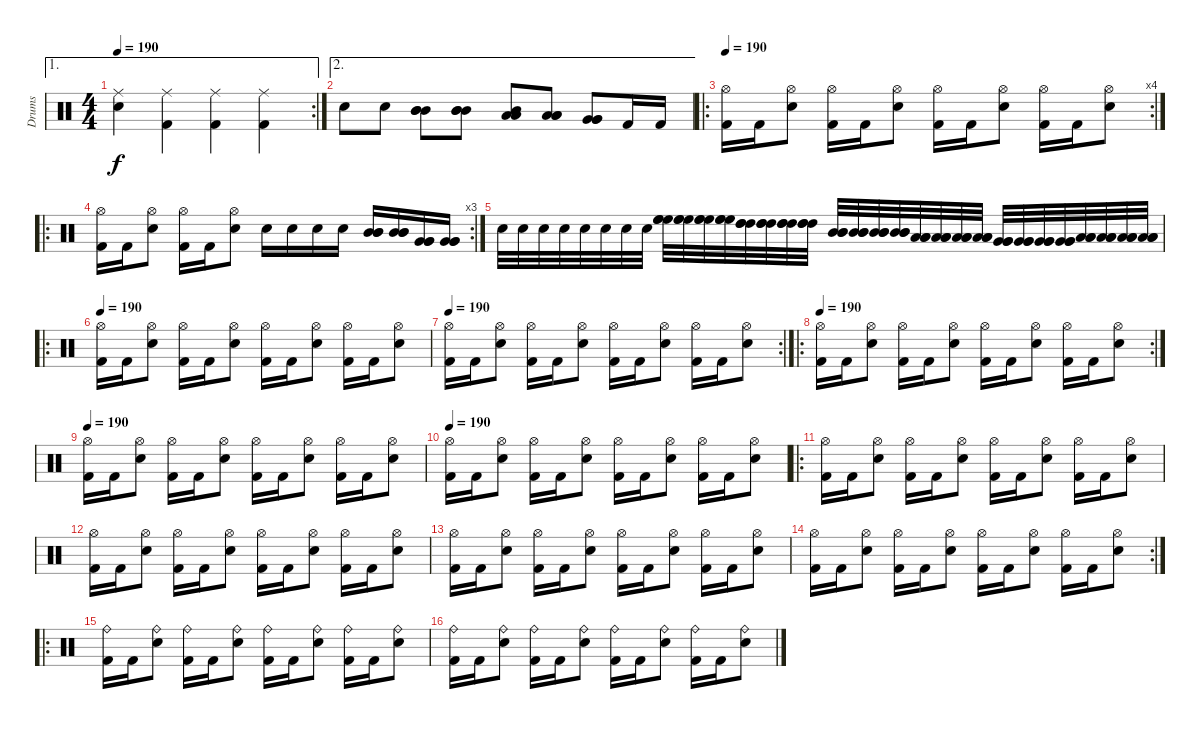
\track ("Drums" "Drums") {instrument percussion}
\staff {score}
\articulation defaults
\ae 1
\rc 2
\ts (4 4)
\tempo 190
\clef neutral
\ks c
("Ride (middle)" "Electric Snare (hit)").4{dy f} ("Ride (middle)" "Kick (hit) 2").4 ("Ride (middle)" "Kick (hit) 2").4 ("Ride (middle)" "Kick (hit) 2").4 |
\ae 2 "Electric Snare (hit)".8 "Electric Snare (hit)".8
("Mid Tom (hit)" "Mid Tom (hit)" "Mid Tom (hit)").8 ("Mid Tom (hit)" "Mid Tom (hit)" "Mid Tom (hit)").8 ("Low Tom (hit)" "Low Tom (hit)" "Mid Tom (hit)").8 ("Low Tom (hit)" "Low Tom (hit)" "Low Tom (hit)").8 ("Very Low Tom (hit)" "Very Low Tom (hit)" "Very Low Tom (hit)").8 "Kick (hit) 2".16 "Kick (hit) 2".16 |
\ro
\rc 4
\tempo 190
("Hi-Hat (open)" "Kick (hit) 2").16 "Kick (hit) 2".16 ("Hi-Hat (open)" "Electric Snare (hit)").8 ("Hi-Hat (open)" "Kick (hit) 2").16 "Kick (hit) 2".16 ("Hi-Hat (open)" "Electric Snare (hit)").8 ("Hi-Hat (open)" "Kick (hit) 2").16 "Kick (hit) 2".16 ("Hi-Hat (open)" "Electric Snare (hit)").8 ("Hi-Hat (open)" "Kick (hit) 2").16 "Kick (hit) 2".16 ("Hi-Hat (open)" "Electric Snare (hit)").8 |
\ro
\rc 3
("Hi-Hat (open)" "Kick (hit) 2").16 "Kick (hit) 2".16 ("Hi-Hat (open)" "Electric Snare (hit)").8 ("Hi-Hat (open)" "Kick (hit) 2").16 "Kick (hit) 2".16 ("Hi-Hat (open)" "Electric Snare (hit)").8 "Electric Snare (hit)".16 "Electric Snare (hit)".16 "Electric Snare (hit)".16 "Electric Snare (hit)".16 ("Mid Tom (hit)" "Mid Tom (hit)" "Mid Tom (hit)").16 ("Mid Tom (hit)" "Mid Tom (hit)" "Mid Tom (hit)").16 ("Very Low Tom (hit)" "Very Low Tom (hit)" "Very Low Tom (hit)").16 ("Very Low Tom (hit)" "Very Low Tom (hit)" "Very Low Tom (hit)").16 |
"Electric Snare (hit)".32 "Electric Snare (hit)".32 "Electric Snare (hit)".32 "Electric Snare (hit)".32 "Electric Snare (hit)".32 "Electric Snare (hit)".32 "Electric Snare (hit)".32 "Electric Snare (hit)".32 ("High Floor Tom (hit)" "High Floor Tom (hit)" "High Floor Tom (hit)").32 ("High Floor Tom (hit)" "High Floor Tom (hit)" "High Floor Tom (hit)").32 ("High Floor Tom (hit)" "High Floor Tom (hit)" "High Floor Tom (hit)").32 ("High Floor Tom (hit)" "High Floor Tom (hit)" "High Floor Tom (hit)").32 ("High Tom (hit)" "High Tom (hit)" "High Tom (hit)").32 ("High Tom (hit)" "High Tom (hit)" "High Tom (hit)").32 ("High Tom (hit)" "High Tom (hit)" "High Tom (hit)").32 ("High Tom (hit)" "High Tom (hit)" "High Tom (hit)").32 ("Mid Tom (hit)" "Mid Tom (hit)" "Mid Tom (hit)").32 ("Mid Tom (hit)" "Mid Tom (hit)" "Mid Tom (hit)").32 ("Mid Tom (hit)" "Mid Tom (hit)" "Mid Tom (hit)").32 ("Mid Tom (hit)" "Mid Tom (hit)" "Mid Tom (hit)").32 ("Low Tom (hit)" "Low Tom (hit)" "Low Tom (hit)").32 ("Low Tom (hit)" "Low Tom (hit)" "Low Tom (hit)").32 ("Low Tom (hit)" "Low Tom (hit)" "Low Tom (hit)").32 ("Low Tom (hit)" "Low Tom (hit)" "Low Tom (hit)").32 ("Very Low Tom (hit)" "Very Low Tom (hit)" "Very Low Tom (hit)").32 ("Very Low Tom (hit)" "Very Low Tom (hit)" "Very Low Tom (hit)").32 ("Very Low Tom (hit)" "Very Low Tom (hit)" "Very Low Tom (hit)").32 ("Very Low Tom (hit)" "Very Low Tom (hit)" "Very Low Tom (hit)").32 ("Low Floor Tom (hit)" "Low Floor Tom (hit)" "Low Floor Tom (hit)").32 ("Low Floor Tom (hit)" "Low Floor Tom (hit)" "Low Floor Tom (hit)").32 ("Low Floor Tom (hit)" "Low Floor Tom (hit)" "Low Floor Tom (hit)").32 ("Low Floor Tom (hit)" "Low Floor Tom (hit)" "Low Floor Tom (hit)").32 |
\ro
\tempo 190
("Hi-Hat (open)" "Kick (hit) 2").16 "Kick (hit) 2".16 ("Hi-Hat (open)" "Electric Snare (hit)").8 ("Hi-Hat (open)" "Kick (hit) 2").16 "Kick (hit) 2".16 ("Hi-Hat (open)" "Electric Snare (hit)").8 ("Hi-Hat (open)" "Kick (hit) 2").16 "Kick (hit) 2".16 ("Hi-Hat (open)" "Electric Snare (hit)").8 ("Hi-Hat (open)" "Kick (hit) 2").16 "Kick (hit) 2".16 ("Hi-Hat (open)" "Electric Snare (hit)").8 |
\rc 2
\tempo 190
("Hi-Hat (open)" "Kick (hit) 2").16 "Kick (hit) 2".16 ("Hi-Hat (open)" "Electric Snare (hit)").8 ("Hi-Hat (open)" "Kick (hit) 2").16 "Kick (hit) 2".16 ("Hi-Hat (open)" "Electric Snare (hit)").8 ("Hi-Hat (open)" "Kick (hit) 2").16 "Kick (hit) 2".16 ("Hi-Hat (open)" "Electric Snare (hit)").8 ("Hi-Hat (open)" "Kick (hit) 2").16 "Kick (hit) 2".16 ("Hi-Hat (open)" "Electric Snare (hit)").8 |
\ro
\rc 2
\tempo 190
("Hi-Hat (open)" "Kick (hit) 2").16 "Kick (hit) 2".16 ("Hi-Hat (open)" "Electric Snare (hit)").8 ("Hi-Hat (open)" "Kick (hit) 2").16 "Kick (hit) 2".16 ("Hi-Hat (open)" "Electric Snare (hit)").8 ("Hi-Hat (open)" "Kick (hit) 2").16 "Kick (hit) 2".16 ("Hi-Hat (open)" "Electric Snare (hit)").8 ("Hi-Hat (open)" "Kick (hit) 2").16 "Kick (hit) 2".16 ("Hi-Hat (open)" "Electric Snare (hit)").8 |
\tempo 190
("Hi-Hat (open)" "Kick (hit) 2").16 "Kick (hit) 2".16 ("Hi-Hat (open)" "Electric Snare (hit)").8 ("Hi-Hat (open)" "Kick (hit) 2").16 "Kick (hit) 2".16 ("Hi-Hat (open)" "Electric Snare (hit)").8 ("Hi-Hat (open)" "Kick (hit) 2").16 "Kick (hit) 2".16 ("Hi-Hat (open)" "Electric Snare (hit)").8 ("Hi-Hat (open)" "Kick (hit) 2").16 "Kick (hit) 2".16 ("Hi-Hat (open)" "Electric Snare (hit)").8 |
\tempo 190
("Hi-Hat (open)" "Kick (hit) 2").16 "Kick (hit) 2".16 ("Hi-Hat (open)" "Electric Snare (hit)").8 ("Hi-Hat (open)" "Kick (hit) 2").16 "Kick (hit) 2".16 ("Hi-Hat (open)" "Electric Snare (hit)").8 ("Hi-Hat (open)" "Kick (hit) 2").16 "Kick (hit) 2".16 ("Hi-Hat (open)" "Electric Snare (hit)").8 ("Hi-Hat (open)" "Kick (hit) 2").16 "Kick (hit) 2".16 ("Hi-Hat (open)" "Electric Snare (hit)").8 |
\ro
("Hi-Hat (open)" "Kick (hit) 2").16 "Kick (hit) 2".16 ("Hi-Hat (open)" "Electric Snare (hit)").8 ("Hi-Hat (open)" "Kick (hit) 2").16 "Kick (hit) 2".16 ("Hi-Hat (open)" "Electric Snare (hit)").8 ("Hi-Hat (open)" "Kick (hit) 2").16 "Kick (hit) 2".16 ("Hi-Hat (open)" "Electric Snare (hit)").8 ("Hi-Hat (open)" "Kick (hit) 2").16 "Kick (hit) 2".16 ("Hi-Hat (open)" "Electric Snare (hit)").8 |
("Hi-Hat (open)" "Kick (hit) 2").16 "Kick (hit) 2".16 ("Hi-Hat (open)" "Electric Snare (hit)").8 ("Hi-Hat (open)" "Kick (hit) 2").16 "Kick (hit) 2".16 ("Hi-Hat (open)" "Electric Snare (hit)").8 ("Hi-Hat (open)" "Kick (hit) 2").16 "Kick (hit) 2".16 ("Hi-Hat (open)" "Electric Snare (hit)").8 ("Hi-Hat (open)" "Kick (hit) 2").16 "Kick (hit) 2".16 ("Hi-Hat (open)" "Electric Snare (hit)").8 |
("Hi-Hat (open)" "Kick (hit) 2").16 "Kick (hit) 2".16 ("Hi-Hat (open)" "Electric Snare (hit)").8 ("Hi-Hat (open)" "Kick (hit) 2").16 "Kick (hit) 2".16 ("Hi-Hat (open)" "Electric Snare (hit)").8 ("Hi-Hat (open)" "Kick (hit) 2").16 "Kick (hit) 2".16 ("Hi-Hat (open)" "Electric Snare (hit)").8 ("Hi-Hat (open)" "Kick (hit) 2").16 "Kick (hit) 2".16 ("Hi-Hat (open)" "Electric Snare (hit)").8 |
\rc 2
("Hi-Hat (open)" "Kick (hit) 2").16 "Kick (hit) 2".16 ("Hi-Hat (open)" "Electric Snare (hit)").8 ("Hi-Hat (open)" "Kick (hit) 2").16 "Kick (hit) 2".16 ("Hi-Hat (open)" "Electric Snare (hit)").8 ("Hi-Hat (open)" "Kick (hit) 2").16 "Kick (hit) 2".16 ("Hi-Hat (open)" "Electric Snare (hit)").8 ("Hi-Hat (open)" "Kick (hit) 2").16 "Kick (hit) 2".16 ("Hi-Hat (open)" "Electric Snare (hit)").8 |
\ro
("Ride (bell)" "Kick (hit) 2").16 "Kick (hit) 2".16 ("Ride (bell)" "Electric Snare (hit)").8 ("Ride (bell)" "Kick (hit) 2").16 "Kick (hit) 2".16 ("Ride (bell)" "Electric Snare (hit)").8 ("Ride (bell)" "Kick (hit) 2").16 "Kick (hit) 2".16 ("Ride (bell)" "Electric Snare (hit)").8 ("Ride (bell)" "Kick (hit) 2").16 "Kick (hit) 2".16 ("Ride (bell)" "Electric Snare (hit)").8 |
("Ride (bell)" "Kick (hit) 2").16 "Kick (hit) 2".16 ("Ride (bell)" "Electric Snare (hit)").8 ("Ride (bell)" "Kick (hit) 2").16 "Kick (hit) 2".16 ("Ride (bell)" "Electric Snare (hit)").8 ("Ride (bell)" "Kick (hit) 2").16 "Kick (hit) 2".16 ("Ride (bell)" "Electric Snare (hit)").8 ("Ride (bell)" "Kick (hit) 2").16 "Kick (hit) 2".16 ("Ride (bell)" "Electric Snare (hit)").8
